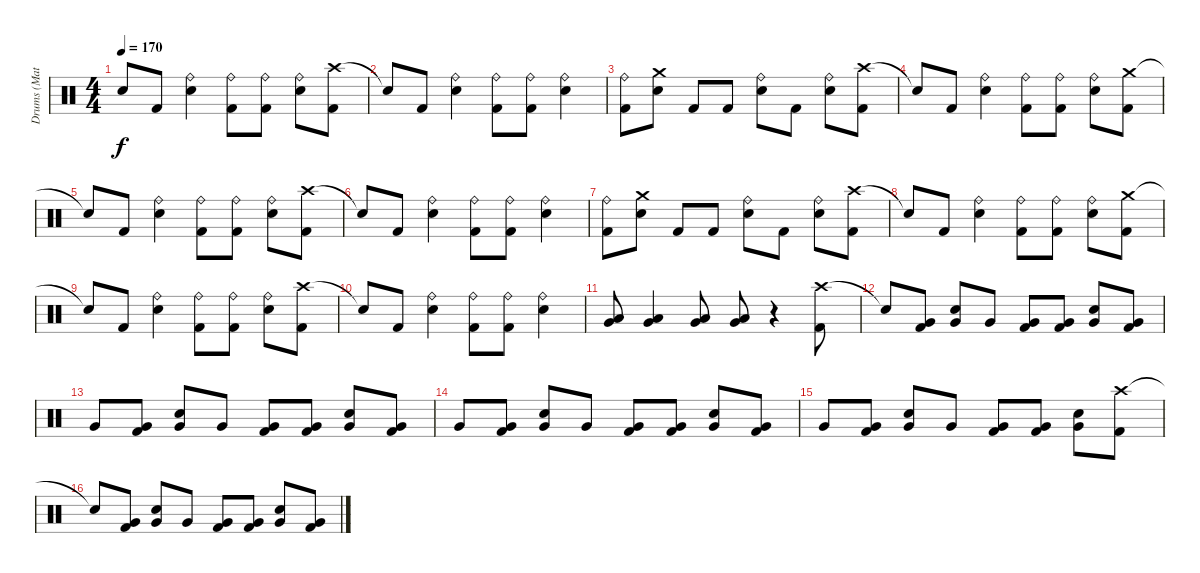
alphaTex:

\track ("Drums (Matt)" "Drums (Mat") {instrument percussion}
\staff {score}
\articulation defaults
\ts (4 4)
\tempo 170
\clef neutral
\ks c "Snare (hit)"{t}.8{dy f} "Kick (hit) 2".8
("Ride (bell)" "Snare (hit) 2").4 ("Ride (bell)" "Kick (hit) 2").8 ("Ride (bell)" "Kick (hit) 2").8 ("Ride (bell)" "Snare (hit) 2").8 ("Crash high (hit)" "Kick (hit) 2").8 |
"Snare (hit)"{t}.8 "Kick (hit) 2".8 ("Ride (bell)" "Snare (hit) 2").4 ("Ride (bell)" "Kick (hit) 2").8 ("Ride (bell)" "Kick (hit) 2").8 ("Ride (bell)" "Snare (hit) 2").4 |
("Ride (bell)" "Kick (hit) 2").8 ("Crash medium (hit)" "Snare (hit) 2").8 "Kick (hit) 2".8 "Kick (hit) 2".8 ("Ride (bell)" "Snare (hit) 2").8 "Kick (hit) 2".8 ("Ride (bell)" "Snare (hit) 2").8 ("Crash high (hit)" "Kick (hit) 2").8 |
"Snare (hit)"{t}.8 "Kick (hit) 2".8 ("Ride (bell)" "Snare (hit) 2").4 ("Ride (bell)" "Kick (hit) 2").8 ("Ride (bell)" "Kick (hit) 2").8 ("Ride (bell)" "Snare (hit) 2").8 ("Crash medium (hit)" "Kick (hit) 2").8 |
"Snare (hit)"{t}.8 "Kick (hit) 2".8 ("Ride (bell)" "Snare (hit) 2").4 ("Ride (bell)" "Kick (hit) 2").8 ("Ride (bell)" "Kick (hit) 2").8 ("Ride (bell)" "Snare (hit) 2").8 ("Crash high (hit)" "Kick (hit) 2").8 |
"Snare (hit)"{t}.8 "Kick (hit) 2".8 ("Ride (bell)" "Snare (hit) 2").4 ("Ride (bell)" "Kick (hit) 2").8 ("Ride (bell)" "Kick (hit) 2").8 ("Ride (bell)" "Snare (hit) 2").4 |
("Ride (bell)" "Kick (hit) 2").8 ("Crash medium (hit)" "Snare (hit) 2").8 "Kick (hit) 2".8 "Kick (hit) 2".8 ("Ride (bell)" "Snare (hit) 2").8 "Kick (hit) 2".8 ("Ride (bell)" "Snare (hit) 2").8 ("Crash high (hit)" "Kick (hit) 2").8 |
"Snare (hit)"{t}.8 "Kick (hit) 2".8 ("Ride (bell)" "Snare (hit) 2").4 ("Ride (bell)" "Kick (hit) 2").8 ("Ride (bell)" "Kick (hit) 2").8 ("Ride (bell)" "Snare (hit) 2").8 ("Crash medium (hit)" "Kick (hit) 2").8 |
"Snare (hit)"{t}.8 "Kick (hit) 2".8 ("Ride (bell)" "Snare (hit) 2").4 ("Ride (bell)" "Kick (hit) 2").8 ("Ride (bell)" "Kick (hit) 2").8 ("Ride (bell)" "Snare (hit) 2").8 ("Crash high (hit)" "Kick (hit) 2").8 |
"Snare (hit)"{t}.8 "Kick (hit) 2".8 ("Ride (bell)" "Snare (hit) 2").4 ("Ride (bell)" "Kick (hit) 2").8 ("Ride (bell)" "Kick (hit) 2").8 ("Ride (bell)" "Snare (hit) 2").4 |
("Low Tom (hit)" "Very Low Tom (hit)").8 ("Low Tom (hit)" "Very Low Tom (hit)").4 ("Low Tom (hit)" "Very Low Tom (hit)").8 ("Low Tom (hit)" "Very Low Tom (hit)").8 r.4 ("Crash high (hit)" "Kick (hit) 2").8 |
"Snare (hit)"{t}.8 ("Very Low Tom (hit)" "Kick (hit) 2").8 ("Very Low Tom (hit)" "Snare (hit) 2").8 "Very Low Tom (hit)".8 ("Very Low Tom (hit)" "Kick (hit) 2").8 ("Very Low Tom (hit)" "Kick (hit) 2").8 ("Very Low Tom (hit)" "Snare (hit) 2").8 ("Very Low Tom (hit)" "Kick (hit) 2").8 |
"Very Low Tom (hit)".8 ("Very Low Tom (hit)" "Kick (hit) 2").8 ("Very Low Tom (hit)" "Snare (hit) 2").8 "Very Low Tom (hit)".8 ("Very Low Tom (hit)" "Kick (hit) 2").8 ("Very Low Tom (hit)" "Kick (hit) 2").8 ("Very Low Tom (hit)" "Snare (hit) 2").8 ("Very Low Tom (hit)" "Kick (hit) 2").8 |
"Very Low Tom (hit)".8 ("Very Low Tom (hit)" "Kick (hit) 2").8 ("Very Low Tom (hit)" "Snare (hit) 2").8 "Very Low Tom (hit)".8 ("Very Low Tom (hit)" "Kick (hit) 2").8 ("Very Low Tom (hit)" "Kick (hit) 2").8 ("Very Low Tom (hit)" "Snare (hit) 2").8 ("Very Low Tom (hit)" "Kick (hit) 2").8 |
"Very Low Tom (hit)".8 ("Very Low Tom (hit)" "Kick (hit) 2").8 ("Very Low Tom (hit)" "Snare (hit) 2").8 "Very Low Tom (hit)".8 ("Very Low Tom (hit)" "Kick (hit) 2").8 ("Very Low Tom (hit)" "Kick (hit) 2").8 ("Very Low Tom (hit)" "Snare (hit) 2").8 ("Crash high (hit)" "Kick (hit) 2").8 |
"Snare (hit)"{t}.8 ("Very Low Tom (hit)" "Kick (hit) 2").8 ("Very Low Tom (hit)" "Snare (hit) 2").8 "Very Low Tom (hit)".8 ("Very Low Tom (hit)" "Kick (hit) 2").8 ("Very Low Tom (hit)" "Kick (hit) 2").8 ("Very Low Tom (hit)" "Snare (hit) 2").8 ("Very Low Tom (hit)" "Kick (hit) 2").8
